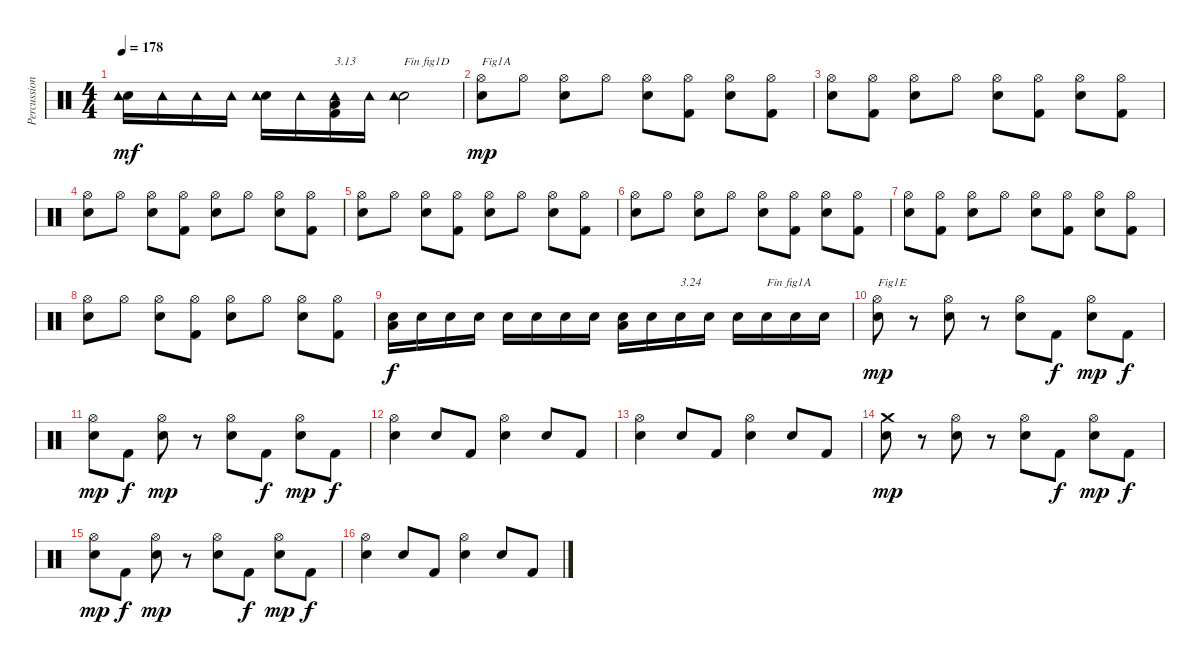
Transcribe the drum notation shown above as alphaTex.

\track ("Percussions" "Percussion") {instrument percussion}
\staff {score}
\articulation defaults
\ts (4 4)
\tempo 178
\clef neutral
\ks c
("Electric Snare (hit)" "Tambourine (hit)").16{dy mf} "Tambourine (hit)".16 "Tambourine (hit)".16 "Tambourine (hit)".16 ("Electric Snare (hit)" "Tambourine (hit)").16 "Tambourine (hit)".16 ("Kick (hit) 2" "Low Floor Tom (hit)" "Tambourine (hit)").16{txt "3.13"} "Tambourine (hit)".16 ("Electric Snare (hit)" "Tambourine (hit)").2{txt "Fin fig1D"} |
("Electric Snare (hit)" "Hi-Hat (open)").8{txt "Fig1A" dy mp} "Hi-Hat (open)".8 ("Electric Snare (hit)" "Hi-Hat (open)").8 "Hi-Hat (open)".8 ("Electric Snare (hit)" "Hi-Hat (open)").8 ("Kick (hit) 2" "Hi-Hat (open)").8 ("Electric Snare (hit)" "Hi-Hat (open)").8 ("Kick (hit) 2" "Hi-Hat (open)").8 |
("Electric Snare (hit)" "Hi-Hat (open)").8 ("Kick (hit) 2" "Hi-Hat (open)").8 ("Electric Snare (hit)" "Hi-Hat (open)").8 "Hi-Hat (open)".8 ("Electric Snare (hit)" "Hi-Hat (open)").8 ("Kick (hit) 2" "Hi-Hat (open)").8 ("Electric Snare (hit)" "Hi-Hat (open)").8 ("Kick (hit) 2" "Hi-Hat (open)").8 |
("Electric Snare (hit)" "Hi-Hat (open)").8 "Hi-Hat (open)".8 ("Electric Snare (hit)" "Hi-Hat (open)").8 ("Kick (hit) 2" "Hi-Hat (open)").8 ("Electric Snare (hit)" "Hi-Hat (open)").8 "Hi-Hat (open)".8 ("Electric Snare (hit)" "Hi-Hat (open)").8 ("Kick (hit) 2" "Hi-Hat (open)").8 |
("Electric Snare (hit)" "Hi-Hat (open)").8 "Hi-Hat (open)".8 ("Electric Snare (hit)" "Hi-Hat (open)").8 ("Kick (hit) 2" "Hi-Hat (open)").8 ("Electric Snare (hit)" "Hi-Hat (open)").8 "Hi-Hat (open)".8 ("Electric Snare (hit)" "Hi-Hat (open)").8 ("Kick (hit) 2" "Hi-Hat (open)").8 |
("Electric Snare (hit)" "Hi-Hat (open)").8 "Hi-Hat (open)".8 ("Electric Snare (hit)" "Hi-Hat (open)").8 "Hi-Hat (open)".8 ("Electric Snare (hit)" "Hi-Hat (open)").8 ("Kick (hit) 2" "Hi-Hat (open)").8 ("Electric Snare (hit)" "Hi-Hat (open)").8 ("Kick (hit) 2" "Hi-Hat (open)").8 |
("Electric Snare (hit)" "Hi-Hat (open)").8 ("Kick (hit) 2" "Hi-Hat (open)").8 ("Electric Snare (hit)" "Hi-Hat (open)").8 "Hi-Hat (open)".8 ("Electric Snare (hit)" "Hi-Hat (open)").8 ("Kick (hit) 2" "Hi-Hat (open)").8 ("Electric Snare (hit)" "Hi-Hat (open)").8 ("Kick (hit) 2" "Hi-Hat (open)").8 |
("Electric Snare (hit)" "Hi-Hat (open)").8 "Hi-Hat (open)".8 ("Electric Snare (hit)" "Hi-Hat (open)").8 ("Kick (hit) 2" "Hi-Hat (open)").8 ("Electric Snare (hit)" "Hi-Hat (open)").8 "Hi-Hat (open)".8 ("Electric Snare (hit)" "Hi-Hat (open)").8 ("Kick (hit) 2" "Hi-Hat (open)").8 |
("Low Floor Tom (hit)" "Electric Snare (hit)").16{dy f} "Electric Snare (hit)".16 "Electric Snare (hit)".16 "Electric Snare (hit)".16 "Electric Snare (hit)".16 "Electric Snare (hit)".16 "Electric Snare (hit)".16 "Electric Snare (hit)".16 ("Low Floor Tom (hit)" "Electric Snare (hit)").16 "Electric Snare (hit)".16 "Electric Snare (hit)".16{txt "3.24"} "Electric Snare (hit)".16 "Electric Snare (hit)".16 "Electric Snare (hit)".16{txt "Fin fig1A"} "Electric Snare (hit)".16 "Electric Snare (hit)".16 |
("Electric Snare (hit)" "Hi-Hat (open)").8{txt "Fig1E" dy mp} r.8 ("Electric Snare (hit)" "Hi-Hat (open)").8 r.8 ("Electric Snare (hit)" "Hi-Hat (open)").8 "Kick (hit) 2".8{dy f} ("Electric Snare (hit)" "Hi-Hat (open)").8{dy mp} "Kick (hit) 2".8{dy f} |
("Electric Snare (hit)" "Hi-Hat (open)").8{dy mp} "Kick (hit) 2".8{dy f} ("Electric Snare (hit)" "Hi-Hat (open)").8{dy mp} r.8 ("Electric Snare (hit)" "Hi-Hat (open)").8 "Kick (hit) 2".8{dy f} ("Electric Snare (hit)" "Hi-Hat (open)").8{dy mp} "Kick (hit) 2".8{dy f} |
("Electric Snare (hit)" "Hi-Hat (open)").4 "Electric Snare (hit)".8 "Kick (hit) 2".8 ("Electric Snare (hit)" "Hi-Hat (open)").4 "Electric Snare (hit)".8 "Kick (hit) 2".8 |
("Electric Snare (hit)" "Hi-Hat (open)").4 "Electric Snare (hit)".8 "Kick (hit) 2".8 ("Electric Snare (hit)" "Hi-Hat (open)").4 "Electric Snare (hit)".8 "Kick (hit) 2".8 |
("Electric Snare (hit)" "Crash medium (hit)").8{dy mp} r.8 ("Electric Snare (hit)" "Hi-Hat (open)").8 r.8 ("Electric Snare (hit)" "Hi-Hat (open)").8 "Kick (hit) 2".8{dy f} ("Electric Snare (hit)" "Hi-Hat (open)").8{dy mp} "Kick (hit) 2".8{dy f} |
("Electric Snare (hit)" "Hi-Hat (open)").8{dy mp} "Kick (hit) 2".8{dy f} ("Electric Snare (hit)" "Hi-Hat (open)").8{dy mp} r.8 ("Electric Snare (hit)" "Hi-Hat (open)").8 "Kick (hit) 2".8{dy f} ("Electric Snare (hit)" "Hi-Hat (open)").8{dy mp} "Kick (hit) 2".8{dy f} |
("Electric Snare (hit)" "Hi-Hat (open)").4 "Electric Snare (hit)".8 "Kick (hit) 2".8 ("Electric Snare (hit)" "Hi-Hat (open)").4 "Electric Snare (hit)".8 "Kick (hit) 2".8
